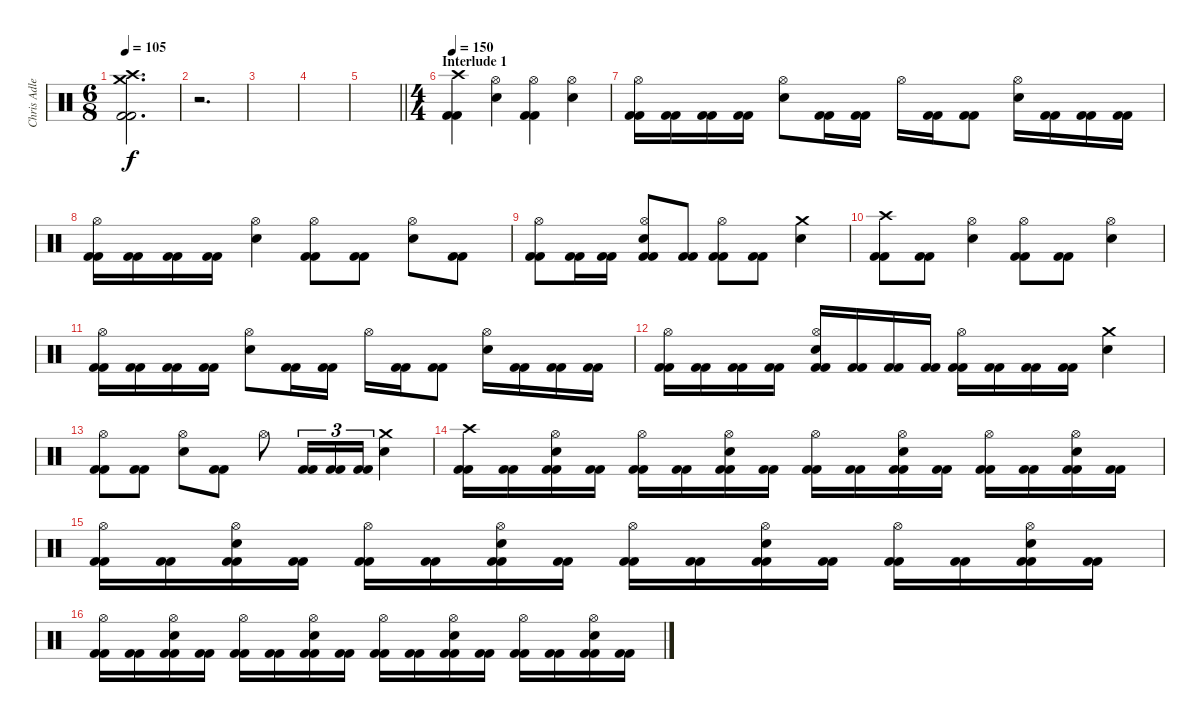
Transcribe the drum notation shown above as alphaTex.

\track ("Chris Adler" "Chris Adle") {instrument percussion}
\staff {score}
\articulation defaults
\ts (6 8)
\tempo 105
\clef neutral
\ks c
("Crash medium (hit)" "Crash high (hit)" "Kick (hit) 2" "Kick (hit) 2").2{d dy f} |
r.2{d} |
|
|
\barLineRight lightlight
|
\ts (4 4)
\section ("" "Interlude 1")
\tempo 150
("Crash high (hit)" "Kick (hit) 2" "Kick (hit) 2").4 ("Hi-Hat (open)" "Electric Snare (hit)").4 ("Hi-Hat (open)" "Kick (hit) 2" "Kick (hit) 2").4 ("Hi-Hat (open)" "Electric Snare (hit)").4 |
("Hi-Hat (open)" "Kick (hit) 2" "Kick (hit) 2").16 ("Kick (hit) 2" "Kick (hit) 2").16 ("Kick (hit) 2" "Kick (hit) 2").16 ("Kick (hit) 2" "Kick (hit) 2").16 ("Hi-Hat (open)" "Electric Snare (hit)").8 ("Kick (hit) 2" "Kick (hit) 2").16 ("Kick (hit) 2" "Kick (hit) 2").16 "Hi-Hat (open)".16 ("Kick (hit) 2" "Kick (hit) 2").16 ("Kick (hit) 2" "Kick (hit) 2").8 ("Hi-Hat (open)" "Electric Snare (hit)").16 ("Kick (hit) 2" "Kick (hit) 2").16 ("Kick (hit) 2" "Kick (hit) 2").16 ("Kick (hit) 2" "Kick (hit) 2").16 |
("Hi-Hat (open)" "Kick (hit) 2" "Kick (hit) 2").16 ("Kick (hit) 2" "Kick (hit) 2").16 ("Kick (hit) 2" "Kick (hit) 2").16 ("Kick (hit) 2" "Kick (hit) 2").16 ("Hi-Hat (open)" "Electric Snare (hit)").4 ("Hi-Hat (open)" "Kick (hit) 2" "Kick (hit) 2").8 ("Kick (hit) 2" "Kick (hit) 2").8 ("Hi-Hat (open)" "Electric Snare (hit)").8 ("Kick (hit) 2" "Kick (hit) 2").8 |
("Hi-Hat (open)" "Kick (hit) 2" "Kick (hit) 2").8 ("Kick (hit) 2" "Kick (hit) 2").16 ("Kick (hit) 2" "Kick (hit) 2").16 ("Hi-Hat (open)" "Electric Snare (hit)" "Kick (hit) 2" "Kick (hit) 2").8 ("Kick (hit) 2" "Kick (hit) 2").8 ("Hi-Hat (open)" "Kick (hit) 2" "Kick (hit) 2").8 ("Kick (hit) 2" "Kick (hit) 2").8 ("Crash medium (hit)" "Electric Snare (hit)").4 |
("Crash high (hit)" "Kick (hit) 2" "Kick (hit) 2").8 ("Kick (hit) 2" "Kick (hit) 2").8 ("Hi-Hat (open)" "Electric Snare (hit)").4 ("Hi-Hat (open)" "Kick (hit) 2" "Kick (hit) 2").8 ("Kick (hit) 2" "Kick (hit) 2").8 ("Hi-Hat (open)" "Electric Snare (hit)").4 |
("Hi-Hat (open)" "Kick (hit) 2" "Kick (hit) 2").16 ("Kick (hit) 2" "Kick (hit) 2").16 ("Kick (hit) 2" "Kick (hit) 2").16 ("Kick (hit) 2" "Kick (hit) 2").16 ("Hi-Hat (open)" "Electric Snare (hit)").8 ("Kick (hit) 2" "Kick (hit) 2").16 ("Kick (hit) 2" "Kick (hit) 2").16 "Hi-Hat (open)".16 ("Kick (hit) 2" "Kick (hit) 2").16 ("Kick (hit) 2" "Kick (hit) 2").8 ("Hi-Hat (open)" "Electric Snare (hit)").16 ("Kick (hit) 2" "Kick (hit) 2").16 ("Kick (hit) 2" "Kick (hit) 2").16 ("Kick (hit) 2" "Kick (hit) 2").16 |
("Hi-Hat (open)" "Kick (hit) 2" "Kick (hit) 2").16 ("Kick (hit) 2" "Kick (hit) 2").16 ("Kick (hit) 2" "Kick (hit) 2").16 ("Kick (hit) 2" "Kick (hit) 2").16 ("Hi-Hat (open)" "Electric Snare (hit)" "Kick (hit) 2" "Kick (hit) 2").16 ("Kick (hit) 2" "Kick (hit) 2").16 ("Kick (hit) 2" "Kick (hit) 2").16 ("Kick (hit) 2" "Kick (hit) 2").16 ("Hi-Hat (open)" "Kick (hit) 2" "Kick (hit) 2").16 ("Kick (hit) 2" "Kick (hit) 2").16 ("Kick (hit) 2" "Kick (hit) 2").16 ("Kick (hit) 2" "Kick (hit) 2").16 ("Crash medium (hit)" "Electric Snare (hit)").4 |
("Hi-Hat (open)" "Kick (hit) 2" "Kick (hit) 2").8 ("Kick (hit) 2" "Kick (hit) 2").8 ("Hi-Hat (open)" "Electric Snare (hit)").8 ("Kick (hit) 2" "Kick (hit) 2").8 "Hi-Hat (open)".8 ("Kick (hit) 2" "Kick (hit) 2").16{tu (3 2)} ("Kick (hit) 2" "Kick (hit) 2").16{tu (3 2)} ("Kick (hit) 2" "Kick (hit) 2").16{tu (3 2)} ("Crash medium (hit)" "Electric Snare (hit)").4 |
("Crash high (hit)" "Kick (hit) 2" "Kick (hit) 2").16 ("Kick (hit) 2" "Kick (hit) 2").16 ("Hi-Hat (open)" "Electric Snare (hit)" "Kick (hit) 2" "Kick (hit) 2").16 ("Kick (hit) 2" "Kick (hit) 2").16 ("Hi-Hat (open)" "Kick (hit) 2" "Kick (hit) 2").16 ("Kick (hit) 2" "Kick (hit) 2").16 ("Hi-Hat (open)" "Electric Snare (hit)" "Kick (hit) 2" "Kick (hit) 2").16 ("Kick (hit) 2" "Kick (hit) 2").16 ("Hi-Hat (open)" "Kick (hit) 2" "Kick (hit) 2").16 ("Kick (hit) 2" "Kick (hit) 2").16 ("Hi-Hat (open)" "Electric Snare (hit)" "Kick (hit) 2" "Kick (hit) 2").16 ("Kick (hit) 2" "Kick (hit) 2").16 ("Hi-Hat (open)" "Kick (hit) 2" "Kick (hit) 2").16 ("Kick (hit) 2" "Kick (hit) 2").16 ("Hi-Hat (open)" "Electric Snare (hit)" "Kick (hit) 2" "Kick (hit) 2").16 ("Kick (hit) 2" "Kick (hit) 2").16 |
("Hi-Hat (open)" "Kick (hit) 2" "Kick (hit) 2").16 ("Kick (hit) 2" "Kick (hit) 2").16 ("Hi-Hat (open)" "Electric Snare (hit)" "Kick (hit) 2" "Kick (hit) 2").16 ("Kick (hit) 2" "Kick (hit) 2").16 ("Hi-Hat (open)" "Kick (hit) 2" "Kick (hit) 2").16 ("Kick (hit) 2" "Kick (hit) 2").16 ("Hi-Hat (open)" "Electric Snare (hit)" "Kick (hit) 2" "Kick (hit) 2").16 ("Kick (hit) 2" "Kick (hit) 2").16 ("Hi-Hat (open)" "Kick (hit) 2" "Kick (hit) 2").16 ("Kick (hit) 2" "Kick (hit) 2").16 ("Hi-Hat (open)" "Electric Snare (hit)" "Kick (hit) 2" "Kick (hit) 2").16 ("Kick (hit) 2" "Kick (hit) 2").16 ("Hi-Hat (open)" "Kick (hit) 2" "Kick (hit) 2").16 ("Kick (hit) 2" "Kick (hit) 2").16 ("Hi-Hat (open)" "Electric Snare (hit)" "Kick (hit) 2" "Kick (hit) 2").16 ("Kick (hit) 2" "Kick (hit) 2").16 |
("Hi-Hat (open)" "Kick (hit) 2" "Kick (hit) 2").16 ("Kick (hit) 2" "Kick (hit) 2").16 ("Hi-Hat (open)" "Electric Snare (hit)" "Kick (hit) 2" "Kick (hit) 2").16 ("Kick (hit) 2" "Kick (hit) 2").16 ("Hi-Hat (open)" "Kick (hit) 2" "Kick (hit) 2").16 ("Kick (hit) 2" "Kick (hit) 2").16 ("Hi-Hat (open)" "Electric Snare (hit)" "Kick (hit) 2" "Kick (hit) 2").16 ("Kick (hit) 2" "Kick (hit) 2").16 ("Hi-Hat (open)" "Kick (hit) 2" "Kick (hit) 2").16 ("Kick (hit) 2" "Kick (hit) 2").16 ("Hi-Hat (open)" "Electric Snare (hit)" "Kick (hit) 2" "Kick (hit) 2").16 ("Kick (hit) 2" "Kick (hit) 2").16 ("Hi-Hat (open)" "Kick (hit) 2" "Kick (hit) 2").16 ("Kick (hit) 2" "Kick (hit) 2").16 ("Hi-Hat (open)" "Electric Snare (hit)" "Kick (hit) 2" "Kick (hit) 2").16 ("Kick (hit) 2" "Kick (hit) 2").16
